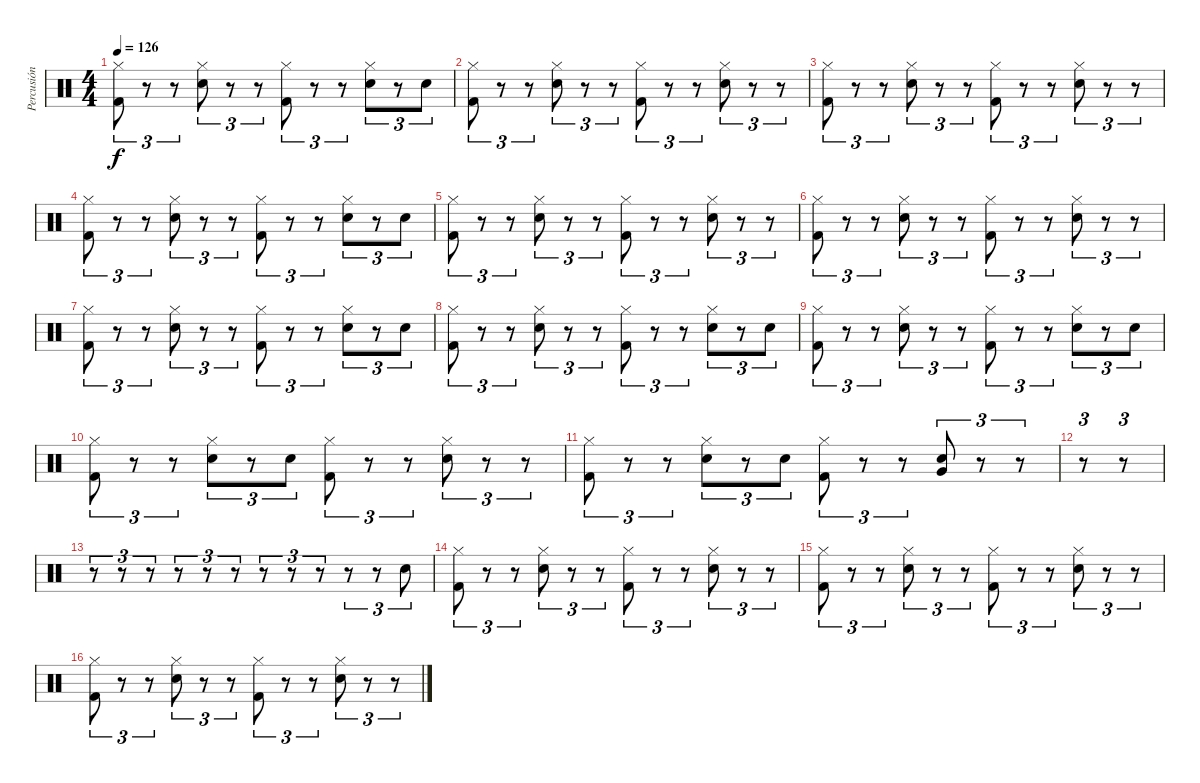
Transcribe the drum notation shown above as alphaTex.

\track ("Percusión" "Percusión") {instrument percussion}
\staff {score}
\articulation defaults
\ts (4 4)
\tempo 126
\clef neutral
\ks c
("Hi-Hat (closed)" "Kick (hit) 2").8{tu (3 2) dy f} r.8{tu (3 2)} r.8{tu (3 2)} ("Hi-Hat (closed)" "Electric Snare (hit)").8{tu (3 2)} r.8{tu (3 2)} r.8{tu (3 2)} ("Hi-Hat (closed)" "Kick (hit) 2").8{tu (3 2)} r.8{tu (3 2)} r.8{tu (3 2)} ("Hi-Hat (closed)" "Electric Snare (hit)").8{tu (3 2)} r.8{tu (3 2)} "Electric Snare (hit)".8{tu (3 2)} |
("Hi-Hat (closed)" "Kick (hit) 2").8{tu (3 2)} r.8{tu (3 2)} r.8{tu (3 2)} ("Hi-Hat (closed)" "Electric Snare (hit)").8{tu (3 2)} r.8{tu (3 2)} r.8{tu (3 2)} ("Hi-Hat (closed)" "Kick (hit) 2").8{tu (3 2)} r.8{tu (3 2)} r.8{tu (3 2)} ("Hi-Hat (closed)" "Electric Snare (hit)").8{tu (3 2)} r.8{tu (3 2)} r.8{tu (3 2)} |
("Hi-Hat (closed)" "Kick (hit) 2").8{tu (3 2)} r.8{tu (3 2)} r.8{tu (3 2)} ("Hi-Hat (closed)" "Electric Snare (hit)").8{tu (3 2)} r.8{tu (3 2)} r.8{tu (3 2)} ("Hi-Hat (closed)" "Kick (hit) 2").8{tu (3 2)} r.8{tu (3 2)} r.8{tu (3 2)} ("Hi-Hat (closed)" "Electric Snare (hit)").8{tu (3 2)} r.8{tu (3 2)} r.8{tu (3 2)} |
("Hi-Hat (closed)" "Kick (hit) 2").8{tu (3 2)} r.8{tu (3 2)} r.8{tu (3 2)} ("Hi-Hat (closed)" "Electric Snare (hit)").8{tu (3 2)} r.8{tu (3 2)} r.8{tu (3 2)} ("Hi-Hat (closed)" "Kick (hit) 2").8{tu (3 2)} r.8{tu (3 2)} r.8{tu (3 2)} ("Hi-Hat (closed)" "Electric Snare (hit)").8{tu (3 2)} r.8{tu (3 2)} "Electric Snare (hit)".8{tu (3 2)} |
("Hi-Hat (closed)" "Kick (hit) 2").8{tu (3 2)} r.8{tu (3 2)} r.8{tu (3 2)} ("Hi-Hat (closed)" "Electric Snare (hit)").8{tu (3 2)} r.8{tu (3 2)} r.8{tu (3 2)} ("Hi-Hat (closed)" "Kick (hit) 2").8{tu (3 2)} r.8{tu (3 2)} r.8{tu (3 2)} ("Hi-Hat (closed)" "Electric Snare (hit)").8{tu (3 2)} r.8{tu (3 2)} r.8{tu (3 2)} |
("Hi-Hat (closed)" "Kick (hit) 2").8{tu (3 2)} r.8{tu (3 2)} r.8{tu (3 2)} ("Hi-Hat (closed)" "Electric Snare (hit)").8{tu (3 2)} r.8{tu (3 2)} r.8{tu (3 2)} ("Hi-Hat (closed)" "Kick (hit) 2").8{tu (3 2)} r.8{tu (3 2)} r.8{tu (3 2)} ("Hi-Hat (closed)" "Electric Snare (hit)").8{tu (3 2)} r.8{tu (3 2)} r.8{tu (3 2)} |
("Hi-Hat (closed)" "Kick (hit) 2").8{tu (3 2)} r.8{tu (3 2)} r.8{tu (3 2)} ("Hi-Hat (closed)" "Electric Snare (hit)").8{tu (3 2)} r.8{tu (3 2)} r.8{tu (3 2)} ("Hi-Hat (closed)" "Kick (hit) 2").8{tu (3 2)} r.8{tu (3 2)} r.8{tu (3 2)} ("Hi-Hat (closed)" "Electric Snare (hit)").8{tu (3 2)} r.8{tu (3 2)} "Electric Snare (hit)".8{tu (3 2)} |
("Hi-Hat (closed)" "Kick (hit) 2").8{tu (3 2)} r.8{tu (3 2)} r.8{tu (3 2)} ("Hi-Hat (closed)" "Electric Snare (hit)").8{tu (3 2)} r.8{tu (3 2)} r.8{tu (3 2)} ("Hi-Hat (closed)" "Kick (hit) 2").8{tu (3 2)} r.8{tu (3 2)} r.8{tu (3 2)} ("Hi-Hat (closed)" "Electric Snare (hit)").8{tu (3 2)} r.8{tu (3 2)} "Electric Snare (hit)".8{tu (3 2)} |
("Hi-Hat (closed)" "Kick (hit) 2").8{tu (3 2)} r.8{tu (3 2)} r.8{tu (3 2)} ("Hi-Hat (closed)" "Electric Snare (hit)").8{tu (3 2)} r.8{tu (3 2)} r.8{tu (3 2)} ("Hi-Hat (closed)" "Kick (hit) 2").8{tu (3 2)} r.8{tu (3 2)} r.8{tu (3 2)} ("Hi-Hat (closed)" "Electric Snare (hit)").8{tu (3 2)} r.8{tu (3 2)} "Electric Snare (hit)".8{tu (3 2)} |
("Hi-Hat (closed)" "Kick (hit) 2").8{tu (3 2)} r.8{tu (3 2)} r.8{tu (3 2)} ("Hi-Hat (closed)" "Electric Snare (hit)").8{tu (3 2)} r.8{tu (3 2)} "Electric Snare (hit)".8{tu (3 2)} ("Hi-Hat (closed)" "Kick (hit) 2").8{tu (3 2)} r.8{tu (3 2)} r.8{tu (3 2)} ("Hi-Hat (closed)" "Electric Snare (hit)").8{tu (3 2)} r.8{tu (3 2)} r.8{tu (3 2)} |
("Hi-Hat (closed)" "Kick (hit) 2").8{tu (3 2)} r.8{tu (3 2)} r.8{tu (3 2)} ("Hi-Hat (closed)" "Electric Snare (hit)").8{tu (3 2)} r.8{tu (3 2)} "Electric Snare (hit)".8{tu (3 2)} ("Hi-Hat (closed)" "Kick (hit) 2").8{tu (3 2)} r.8{tu (3 2)} r.8{tu (3 2)} ("Very Low Tom (hit)" "Electric Snare (hit)").8{tu (3 2)} r.8{tu (3 2)} r.8{tu (3 2)} |
r.8{tu (3 2)} r.8{tu (3 2)} |
r.8{tu (3 2)} r.8{tu (3 2)} r.8{tu (3 2)} r.8{tu (3 2)} r.8{tu (3 2)} r.8{tu (3 2)} r.8{tu (3 2)} r.8{tu (3 2)} r.8{tu (3 2)} r.8{tu (3 2)} r.8{tu (3 2)} "Electric Snare (hit)".8{tu (3 2)} |
("Hi-Hat (closed)" "Kick (hit) 2").8{tu (3 2)} r.8{tu (3 2)} r.8{tu (3 2)} ("Hi-Hat (closed)" "Electric Snare (hit)").8{tu (3 2)} r.8{tu (3 2)} r.8{tu (3 2)} ("Hi-Hat (closed)" "Kick (hit) 2").8{tu (3 2)} r.8{tu (3 2)} r.8{tu (3 2)} ("Hi-Hat (closed)" "Electric Snare (hit)").8{tu (3 2)} r.8{tu (3 2)} r.8{tu (3 2)} |
("Hi-Hat (closed)" "Kick (hit) 2").8{tu (3 2)} r.8{tu (3 2)} r.8{tu (3 2)} ("Hi-Hat (closed)" "Electric Snare (hit)").8{tu (3 2)} r.8{tu (3 2)} r.8{tu (3 2)} ("Hi-Hat (closed)" "Kick (hit) 2").8{tu (3 2)} r.8{tu (3 2)} r.8{tu (3 2)} ("Hi-Hat (closed)" "Electric Snare (hit)").8{tu (3 2)} r.8{tu (3 2)} r.8{tu (3 2)} |
("Hi-Hat (closed)" "Kick (hit) 2").8{tu (3 2)} r.8{tu (3 2)} r.8{tu (3 2)} ("Hi-Hat (closed)" "Electric Snare (hit)").8{tu (3 2)} r.8{tu (3 2)} r.8{tu (3 2)} ("Hi-Hat (closed)" "Kick (hit) 2").8{tu (3 2)} r.8{tu (3 2)} r.8{tu (3 2)} ("Hi-Hat (closed)" "Electric Snare (hit)").8{tu (3 2)} r.8{tu (3 2)} r.8{tu (3 2)}
